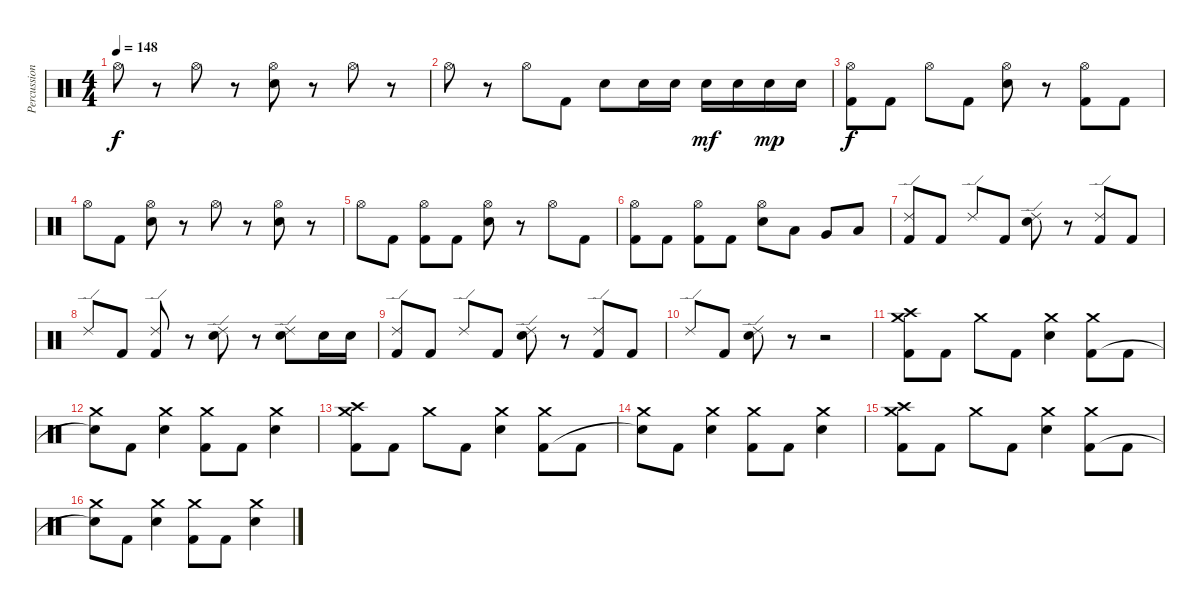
\track ("Percussion" "Percussion") {instrument percussion}
\staff {score}
\articulation defaults
\ts (4 4)
\tempo 148
\clef neutral
\ks c "Hi-Hat (open)".8{dy f}
r.8 "Hi-Hat (open)".8 r.8 ("Hi-Hat (open)" "Electric Snare (hit)").8 r.8 "Hi-Hat (open)".8 r.8 |
"Hi-Hat (open)".8 r.8 "Hi-Hat (open)".8 "Kick (hit) 2".8 "Electric Snare (hit)".8 "Electric Snare (hit)".16 "Electric Snare (hit)".16 "Electric Snare (hit)".16{dy mf} "Electric Snare (hit)".16 "Electric Snare (hit)".16{dy mp} "Electric Snare (hit)".16 |
("Hi-Hat (open)" "Kick (hit) 2").8{dy f} "Kick (hit) 2".8 "Hi-Hat (open)".8 "Kick (hit) 2".8 ("Hi-Hat (open)" "Electric Snare (hit)").8 r.8 ("Hi-Hat (open)" "Kick (hit) 2").8 "Kick (hit) 2".8 |
"Hi-Hat (open)".8 "Kick (hit) 2".8 ("Hi-Hat (open)" "Electric Snare (hit)").8 r.8 "Hi-Hat (open)".8 r.8 ("Hi-Hat (open)" "Electric Snare (hit)").8 r.8 |
"Hi-Hat (open)".8 "Kick (hit) 2".8 ("Hi-Hat (open)" "Kick (hit) 2").8 "Kick (hit) 2".8 ("Hi-Hat (open)" "Electric Snare (hit)").8 r.8 "Hi-Hat (open)".8 "Kick (hit) 2".8 |
("Hi-Hat (open)" "Kick (hit) 2").8 "Kick (hit) 2".8 ("Hi-Hat (open)" "Kick (hit) 2").8 "Kick (hit) 2".8 ("Hi-Hat (open)" "Electric Snare (hit)").8 "Low Tom (hit)".8 "Very Low Tom (hit)".8 "Low Floor Tom (hit)".8 |
("Ride (edge) 2" "Kick (hit) 2").8 "Kick (hit) 2".8 "Ride (edge) 2".8 "Kick (hit) 2".8 ("Ride (edge) 2" "Electric Snare (hit)").8 r.8 ("Ride (edge) 2" "Kick (hit) 2").8 "Kick (hit) 2".8 |
"Ride (edge) 2".8 "Kick (hit) 2".8 ("Ride (edge) 2" "Kick (hit) 2").8 r.8 ("Ride (edge) 2" "Electric Snare (hit)").8 r.8 ("Ride (edge) 2" "Electric Snare (hit)").8 "Electric Snare (hit)".16 "Electric Snare (hit)".16 |
("Ride (edge) 2" "Kick (hit) 2").8 "Kick (hit) 2".8 "Ride (edge) 2".8 "Kick (hit) 2".8 ("Ride (edge) 2" "Electric Snare (hit)").8 r.8 ("Ride (edge) 2" "Kick (hit) 2").8 "Kick (hit) 2".8 |
"Ride (edge) 2".8 "Kick (hit) 2".8 ("Ride (edge) 2" "Electric Snare (hit)").8 r.8 r.2 |
("Crash medium (hit)" "Crash high (hit)" "Kick (hit) 2").8 "Kick (hit) 2".8 "Crash medium (hit)".8 "Kick (hit) 2".8 ("Crash medium (hit)" "Electric Snare (hit)").4 ("Crash medium (hit)" "Kick (hit) 2").8 "Kick (hit) 2".8 |
("Crash medium (hit)" "Snare (hit)"{t}).8 "Kick (hit) 2".8 ("Crash medium (hit)" "Electric Snare (hit)").4 ("Crash medium (hit)" "Kick (hit) 2").8 "Kick (hit) 2".8 ("Crash medium (hit)" "Electric Snare (hit)").4 |
("Crash medium (hit)" "Crash high (hit)" "Kick (hit) 2").8 "Kick (hit) 2".8 "Crash medium (hit)".8 "Kick (hit) 2".8 ("Crash medium (hit)" "Electric Snare (hit)").4 ("Crash medium (hit)" "Kick (hit) 2").8 "Kick (hit) 2".8 |
("Crash medium (hit)" "Snare (hit)"{t}).8 "Kick (hit) 2".8 ("Crash medium (hit)" "Electric Snare (hit)").4 ("Crash medium (hit)" "Kick (hit) 2").8 "Kick (hit) 2".8 ("Crash medium (hit)" "Electric Snare (hit)").4 |
("Crash medium (hit)" "Crash high (hit)" "Kick (hit) 2").8 "Kick (hit) 2".8 "Crash medium (hit)".8 "Kick (hit) 2".8 ("Crash medium (hit)" "Electric Snare (hit)").4 ("Crash medium (hit)" "Kick (hit) 2").8 "Kick (hit) 2".8 |
("Crash medium (hit)" "Snare (hit)"{t}).8 "Kick (hit) 2".8 ("Crash medium (hit)" "Electric Snare (hit)").4 ("Crash medium (hit)" "Kick (hit) 2").8 "Kick (hit) 2".8 ("Crash medium (hit)" "Electric Snare (hit)").4
